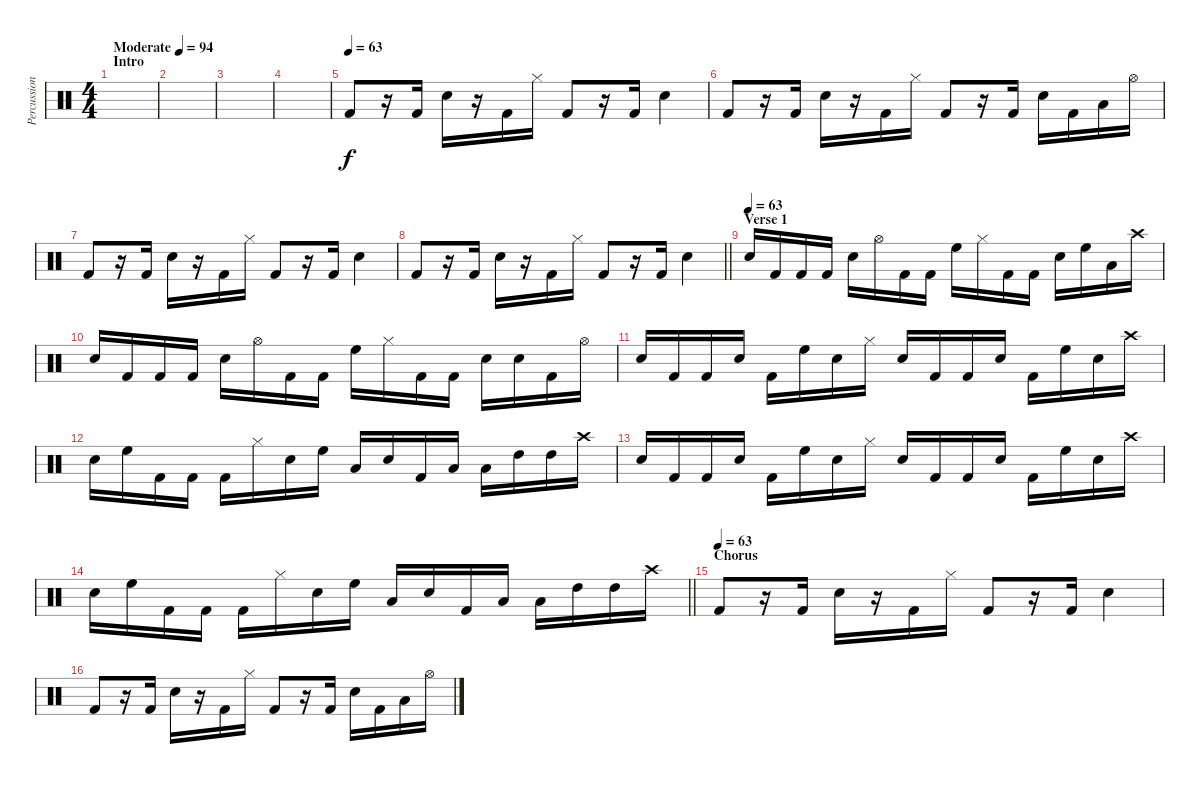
\track ("Percussion" "Percussion") {instrument percussion}
\staff {score}
\articulation defaults
\ts (4 4)
\section ("" "Intro")
\tempo (94 "Moderate")
\tempo 63
\tempo (94 "Moderate")
\clef neutral
\ks c
|
|
|
|
\tempo (63)
"Kick (hit) 2".8 r.16 "Kick (hit) 2".16 "Snare (hit) 2".16 r.16 "Kick (hit) 2".16 "Hi-Hat (closed)".16 "Kick (hit) 2".8 r.16 "Kick (hit) 2".16 "Snare (hit) 2".4 |
"Kick (hit) 2".8 r.16 "Kick (hit) 2".16 "Snare (hit) 2".16 r.16 "Kick (hit) 2".16 "Hi-Hat (closed)".16 "Kick (hit) 2".8 r.16 "Kick (hit) 2".16 "Snare (hit) 2".16 "Kick (hit) 2".16 "Low Tom (hit)".16 "Hi-Hat (open)".16 |
"Kick (hit) 2".8 r.16 "Kick (hit) 2".16 "Snare (hit) 2".16 r.16 "Kick (hit) 2".16 "Hi-Hat (closed)".16 "Kick (hit) 2".8 r.16 "Kick (hit) 2".16 "Snare (hit) 2".4 |
\barLineRight lightlight "Kick (hit) 2".8
r.16 "Kick (hit) 2".16 "Snare (hit) 2".16 r.16 "Kick (hit) 2".16 "Hi-Hat (closed)".16 "Kick (hit) 2".8 r.16 "Kick (hit) 2".16 "Snare (hit) 2".4 |
\section ("" "Verse 1")
\tempo (63)
"Snare (hit) 2".16 "Kick (hit) 2".16 "Kick (hit) 2".16 "Kick (hit) 2".16 "Snare (hit) 2".16 "Hi-Hat (open)".16 "Kick (hit) 2".16 "Kick (hit) 2".16 "High Floor Tom (hit)".16 "Hi-Hat (closed)".16 "Kick (hit) 2".16 "Kick (hit) 2".16 "Snare (hit) 2".16 "High Floor Tom (hit)".16 "Low Tom (hit)".16 "Crash high (hit)".16 |
"Snare (hit) 2".16 "Kick (hit) 2".16 "Kick (hit) 2".16 "Kick (hit) 2".16 "Snare (hit) 2".16 "Hi-Hat (open)".16 "Kick (hit) 2".16 "Kick (hit) 2".16 "High Floor Tom (hit)".16 "Hi-Hat (closed)".16 "Kick (hit) 2".16 "Kick (hit) 2".16 "Snare (hit) 2".16 "Snare (hit) 2".16 "Kick (hit) 2".16 "Hi-Hat (open)".16 |
"Snare (hit) 2".16 "Kick (hit) 2".16 "Kick (hit) 2".16 "Snare (hit) 2".16 "Kick (hit) 2".16 "High Floor Tom (hit)".16 "Snare (hit) 2".16 "Hi-Hat (closed)".16 "Snare (hit) 2".16 "Kick (hit) 2".16 "Kick (hit) 2".16 "Snare (hit) 2".16 "Kick (hit) 2".16 "High Floor Tom (hit)".16 "Snare (hit) 2".16 "Crash high (hit)".16 |
"Snare (hit) 2".16 "High Floor Tom (hit)".16 "Kick (hit) 2".16 "Kick (hit) 2".16 "Kick (hit) 2".16 "Hi-Hat (closed)".16 "Snare (hit) 2".16 "High Floor Tom (hit)".16 "Low Tom (hit)".16 "Snare (hit) 2".16 "Kick (hit) 2".16 "Low Tom (hit)".16 "Low Tom (hit)".16 "High Tom (hit)".16 "High Tom (hit)".16 "Crash high (hit)".16 |
"Snare (hit) 2".16 "Kick (hit) 2".16 "Kick (hit) 2".16 "Snare (hit) 2".16 "Kick (hit) 2".16 "High Floor Tom (hit)".16 "Snare (hit) 2".16 "Hi-Hat (closed)".16 "Snare (hit) 2".16 "Kick (hit) 2".16 "Kick (hit) 2".16 "Snare (hit) 2".16 "Kick (hit) 2".16 "High Floor Tom (hit)".16 "Snare (hit) 2".16 "Crash high (hit)".16 |
\barLineRight lightlight "Snare (hit) 2".16 "High Floor Tom (hit)".16 "Kick (hit) 2".16 "Kick (hit) 2".16 "Kick (hit) 2".16 "Hi-Hat (closed)".16 "Snare (hit) 2".16 "High Floor Tom (hit)".16 "Low Tom (hit)".16 "Snare (hit) 2".16 "Kick (hit) 2".16 "Low Tom (hit)".16 "Low Tom (hit)".16 "High Tom (hit)".16 "High Tom (hit)".16 "Crash high (hit)".16
|
\section ("" "Chorus")
\tempo (63)
"Kick (hit) 2".8 r.16 "Kick (hit) 2".16 "Snare (hit) 2".16 r.16 "Kick (hit) 2".16 "Hi-Hat (closed)".16 "Kick (hit) 2".8 r.16 "Kick (hit) 2".16 "Snare (hit) 2".4 |
"Kick (hit) 2".8 r.16 "Kick (hit) 2".16 "Snare (hit) 2".16 r.16 "Kick (hit) 2".16 "Hi-Hat (closed)".16 "Kick (hit) 2".8 r.16 "Kick (hit) 2".16 "Snare (hit) 2".16 "Kick (hit) 2".16 "Low Tom (hit)".16 "Hi-Hat (open)".16
